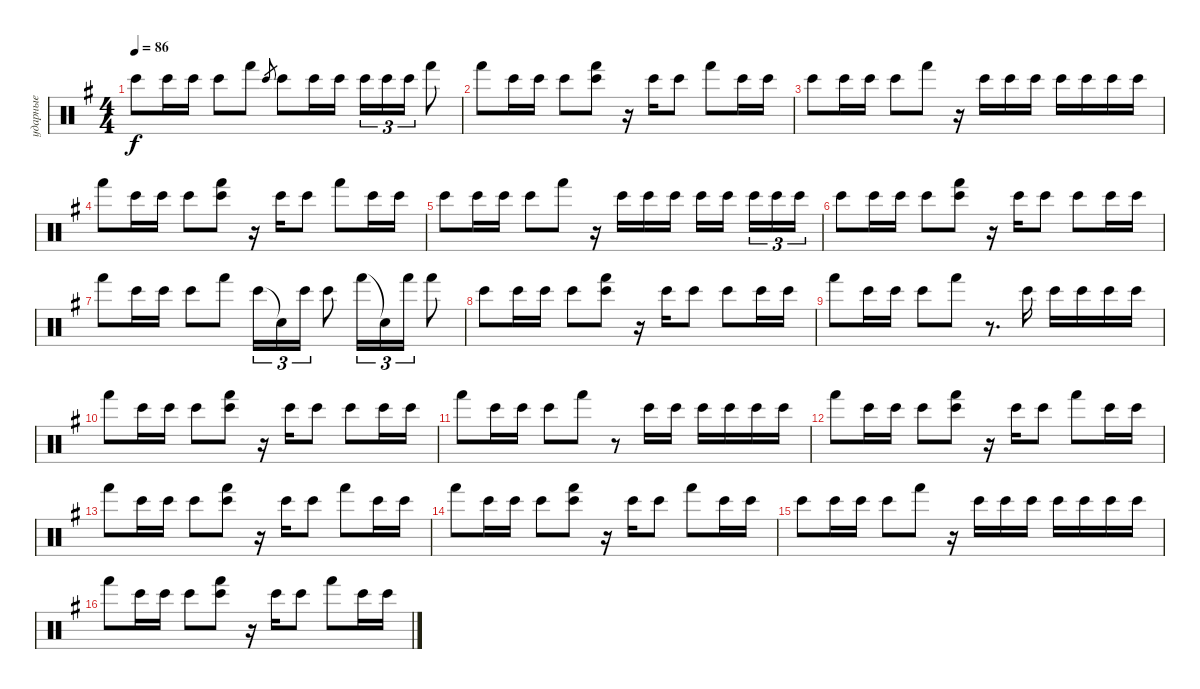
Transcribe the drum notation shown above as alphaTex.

\track ("ударные" "ударные") {instrument percussion}
\staff {score}
\articulation defaults
\ts (4 4)
\tempo 86
\clef neutral
\ks eminor "Bongo High (hit)".8{dy f} "Bongo High (hit)".16 "Bongo High (hit)".16 "Bongo High (hit)".8 "Hand (hit)".8 "Bongo High (hit)".8{gr} "Bongo High (hit)".8 "Bongo High (hit)".16 "Bongo High (hit)".16 "Bongo High (hit)".16{tu (3 2)} "Bongo High (hit)".16{tu (3 2)} "Bongo High (hit)".16{tu (3 2)} "Hand (hit)".8
|
"Hand (hit)".8 "Bongo High (hit)".16 "Bongo High (hit)".16 "Bongo High (hit)".8 ("Bongo High (hit)" "Hand (hit)").8 r.16 "Bongo High (hit)".16 "Bongo High (hit)".8 "Hand (hit)".8 "Bongo High (hit)".16 "Bongo High (hit)".16 |
"Bongo High (hit)".8 "Bongo High (hit)".16 "Bongo High (hit)".16 "Bongo High (hit)".8 "Hand (hit)".8 r.16 "Bongo High (hit)".16 "Bongo High (hit)".16 "Bongo High (hit)".16 "Bongo High (hit)".16 "Bongo High (hit)".16 "Bongo High (hit)".16 "Bongo High (hit)".16 |
"Hand (hit)".8 "Bongo High (hit)".16 "Bongo High (hit)".16 "Bongo High (hit)".8 ("Bongo High (hit)" "Hand (hit)").8 r.16 "Bongo High (hit)".16 "Bongo High (hit)".8 "Hand (hit)".8 "Bongo High (hit)".16 "Bongo High (hit)".16 |
"Bongo High (hit)".8 "Bongo High (hit)".16 "Bongo High (hit)".16 "Bongo High (hit)".8 "Hand (hit)".8 r.16 "Bongo High (hit)".16 "Bongo High (hit)".16 "Bongo High (hit)".16 "Bongo High (hit)".16 "Bongo High (hit)".16{beam splitsecondary} "Bongo High (hit)".16{tu (3 2)} "Bongo High (hit)".16{tu (3 2)} "Bongo High (hit)".16{tu (3 2)} |
"Bongo High (hit)".8 "Bongo High (hit)".16 "Bongo High (hit)".16 "Bongo High (hit)".8 ("Bongo High (hit)" "Hand (hit)").8 r.16 "Bongo High (hit)".16 "Bongo High (hit)".8 "Bongo High (hit)".8 "Bongo High (hit)".16 "Bongo High (hit)".16 |
"Hand (hit)".8 "Bongo High (hit)".16 "Bongo High (hit)".16 "Bongo High (hit)".8 "Hand (hit)".8 "Bongo High (hit)".16{tu (3 2)} "Snare (hit)"{t}.16{tu (3 2)} "Bongo High (hit)".16{tu (3 2)} "Bongo High (hit)".8 "Hand (hit)".16{tu (3 2)} "Snare (hit)"{t}.16{tu (3 2)} "Hand (hit)".16{tu (3 2)} "Hand (hit)".8 |
"Bongo High (hit)".8 "Bongo High (hit)".16 "Bongo High (hit)".16 "Bongo High (hit)".8 ("Bongo High (hit)" "Hand (hit)").8 r.16 "Bongo High (hit)".16 "Bongo High (hit)".8 "Bongo High (hit)".8 "Bongo High (hit)".16 "Bongo High (hit)".16 |
"Hand (hit)".8 "Bongo High (hit)".16 "Bongo High (hit)".16 "Bongo High (hit)".8 "Hand (hit)".8 r.8{d} "Bongo High (hit)".16 "Bongo High (hit)".16 "Bongo High (hit)".16 "Bongo High (hit)".16 "Bongo High (hit)".16 |
"Hand (hit)".8 "Bongo High (hit)".16 "Bongo High (hit)".16 "Bongo High (hit)".8 ("Bongo High (hit)" "Hand (hit)").8 r.16 "Bongo High (hit)".16 "Bongo High (hit)".8 "Bongo High (hit)".8 "Bongo High (hit)".16 "Bongo High (hit)".16 |
"Hand (hit)".8 "Bongo High (hit)".16 "Bongo High (hit)".16 "Bongo High (hit)".8 "Hand (hit)".8 r.8 "Bongo High (hit)".16 "Bongo High (hit)".16 "Bongo High (hit)".16 "Bongo High (hit)".16 "Bongo High (hit)".16 "Bongo High (hit)".16 |
"Hand (hit)".8 "Bongo High (hit)".16 "Bongo High (hit)".16 "Bongo High (hit)".8 ("Bongo High (hit)" "Hand (hit)").8 r.16 "Bongo High (hit)".16 "Bongo High (hit)".8 "Hand (hit)".8 "Bongo High (hit)".16 "Bongo High (hit)".16 |
"Hand (hit)".8 "Bongo High (hit)".16 "Bongo High (hit)".16 "Bongo High (hit)".8 ("Bongo High (hit)" "Hand (hit)").8 r.16 "Bongo High (hit)".16 "Bongo High (hit)".8 "Hand (hit)".8 "Bongo High (hit)".16 "Bongo High (hit)".16 |
"Hand (hit)".8 "Bongo High (hit)".16 "Bongo High (hit)".16 "Bongo High (hit)".8 ("Bongo High (hit)" "Hand (hit)").8 r.16 "Bongo High (hit)".16 "Bongo High (hit)".8 "Hand (hit)".8 "Bongo High (hit)".16 "Bongo High (hit)".16 |
"Bongo High (hit)".8 "Bongo High (hit)".16 "Bongo High (hit)".16 "Bongo High (hit)".8 "Hand (hit)".8 r.16 "Bongo High (hit)".16 "Bongo High (hit)".16 "Bongo High (hit)".16 "Bongo High (hit)".16 "Bongo High (hit)".16 "Bongo High (hit)".16 "Bongo High (hit)".16 |
"Hand (hit)".8 "Bongo High (hit)".16 "Bongo High (hit)".16 "Bongo High (hit)".8 ("Bongo High (hit)" "Hand (hit)").8 r.16 "Bongo High (hit)".16 "Bongo High (hit)".8 "Hand (hit)".8 "Bongo High (hit)".16 "Bongo High (hit)".16
